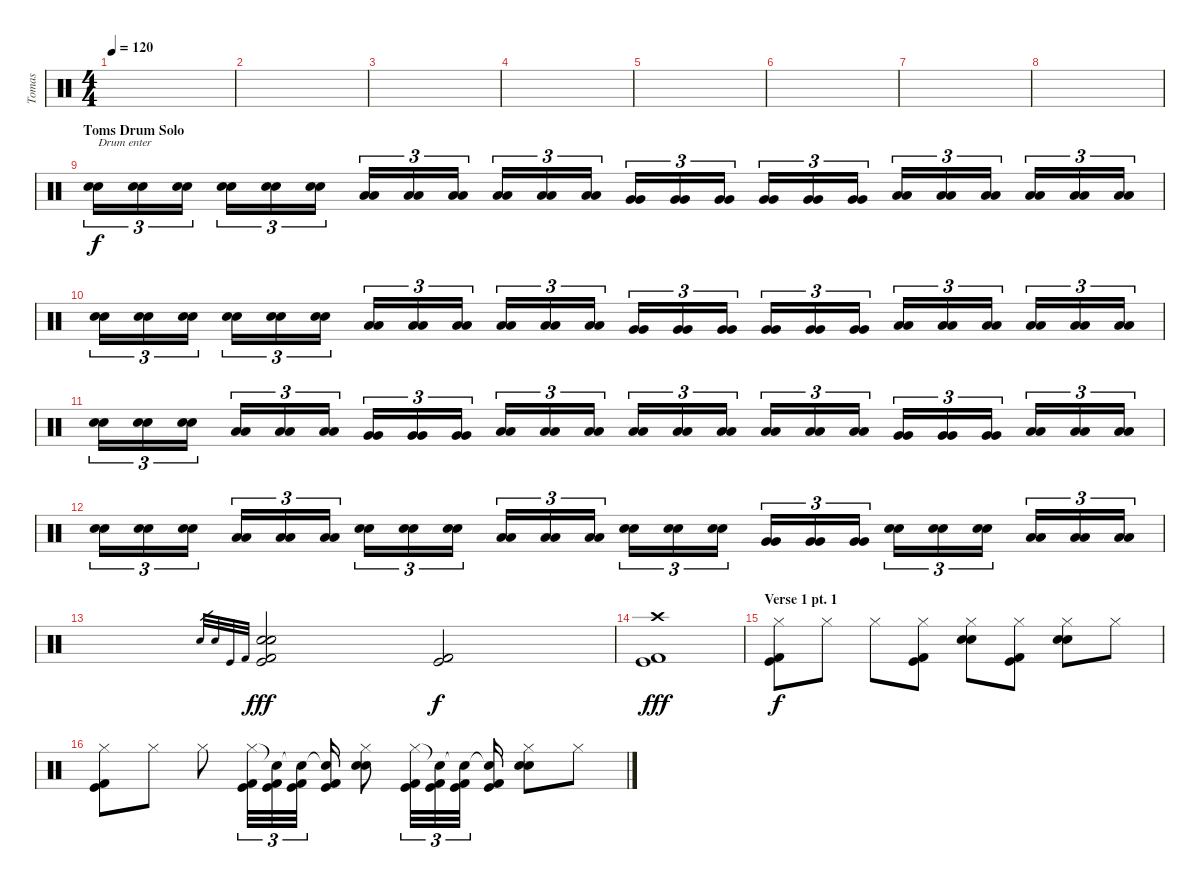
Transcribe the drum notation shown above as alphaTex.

\track ("Tomas" "Tomas") {instrument percussion}
\staff {score}
\articulation defaults
\ts (4 4)
\tempo 120
\clef neutral
\ks c
|
|
|
|
|
|
|
|
\section ("" "Toms Drum Solo")
("Electric Snare (hit)" "Electric Snare (hit)").16{tu (3 2) txt "Drum enter"} ("Electric Snare (hit)" "Electric Snare (hit)").16{tu (3 2)} ("Electric Snare (hit)" "Electric Snare (hit)").16{tu (3 2)} ("Electric Snare (hit)" "Electric Snare (hit)").16{tu (3 2)} ("Electric Snare (hit)" "Electric Snare (hit)").16{tu (3 2)} ("Electric Snare (hit)" "Electric Snare (hit)").16{tu (3 2)} ("Low Tom (hit)" "Low Tom (hit)").16{tu (3 2)} ("Low Tom (hit)" "Low Tom (hit)").16{tu (3 2)} ("Low Tom (hit)" "Low Tom (hit)").16{tu (3 2)} ("Low Tom (hit)" "Low Tom (hit)").16{tu (3 2)} ("Low Tom (hit)" "Low Tom (hit)").16{tu (3 2)} ("Low Tom (hit)" "Low Tom (hit)").16{tu (3 2)} ("Very Low Tom (hit)" "Very Low Tom (hit)").16{tu (3 2)} ("Very Low Tom (hit)" "Very Low Tom (hit)").16{tu (3 2)} ("Very Low Tom (hit)" "Very Low Tom (hit)").16{tu (3 2)} ("Very Low Tom (hit)" "Very Low Tom (hit)").16{tu (3 2)} ("Very Low Tom (hit)" "Very Low Tom (hit)").16{tu (3 2)} ("Very Low Tom (hit)" "Very Low Tom (hit)").16{tu (3 2)} ("Low Tom (hit)" "Low Tom (hit)").16{tu (3 2)} ("Low Tom (hit)" "Low Tom (hit)").16{tu (3 2)} ("Low Tom (hit)" "Low Tom (hit)").16{tu (3 2)} ("Low Tom (hit)" "Low Tom (hit)").16{tu (3 2)} ("Low Tom (hit)" "Low Tom (hit)").16{tu (3 2)} ("Low Tom (hit)" "Low Tom (hit)").16{tu (3 2)} |
("Electric Snare (hit)" "Electric Snare (hit)").16{tu (3 2)} ("Electric Snare (hit)" "Electric Snare (hit)").16{tu (3 2)} ("Electric Snare (hit)" "Electric Snare (hit)").16{tu (3 2)} ("Electric Snare (hit)" "Electric Snare (hit)").16{tu (3 2)} ("Electric Snare (hit)" "Electric Snare (hit)").16{tu (3 2)} ("Electric Snare (hit)" "Electric Snare (hit)").16{tu (3 2)} ("Low Tom (hit)" "Low Tom (hit)").16{tu (3 2)} ("Low Tom (hit)" "Low Tom (hit)").16{tu (3 2)} ("Low Tom (hit)" "Low Tom (hit)").16{tu (3 2)} ("Low Tom (hit)" "Low Tom (hit)").16{tu (3 2)} ("Low Tom (hit)" "Low Tom (hit)").16{tu (3 2)} ("Low Tom (hit)" "Low Tom (hit)").16{tu (3 2)} ("Very Low Tom (hit)" "Very Low Tom (hit)").16{tu (3 2)} ("Very Low Tom (hit)" "Very Low Tom (hit)").16{tu (3 2)} ("Very Low Tom (hit)" "Very Low Tom (hit)").16{tu (3 2)} ("Very Low Tom (hit)" "Very Low Tom (hit)").16{tu (3 2)} ("Very Low Tom (hit)" "Very Low Tom (hit)").16{tu (3 2)} ("Very Low Tom (hit)" "Very Low Tom (hit)").16{tu (3 2)} ("Low Tom (hit)" "Low Tom (hit)").16{tu (3 2)} ("Low Tom (hit)" "Low Tom (hit)").16{tu (3 2)} ("Low Tom (hit)" "Low Tom (hit)").16{tu (3 2)} ("Low Tom (hit)" "Low Tom (hit)").16{tu (3 2)} ("Low Tom (hit)" "Low Tom (hit)").16{tu (3 2)} ("Low Tom (hit)" "Low Tom (hit)").16{tu (3 2)} |
("Electric Snare (hit)" "Electric Snare (hit)").16{tu (3 2)} ("Electric Snare (hit)" "Electric Snare (hit)").16{tu (3 2)} ("Electric Snare (hit)" "Electric Snare (hit)").16{tu (3 2)} ("Low Tom (hit)" "Low Tom (hit)").16{tu (3 2)} ("Low Tom (hit)" "Low Tom (hit)").16{tu (3 2)} ("Low Tom (hit)" "Low Tom (hit)").16{tu (3 2)} ("Very Low Tom (hit)" "Very Low Tom (hit)").16{tu (3 2)} ("Very Low Tom (hit)" "Very Low Tom (hit)").16{tu (3 2)} ("Very Low Tom (hit)" "Very Low Tom (hit)").16{tu (3 2)} ("Low Floor Tom (hit)" "Low Floor Tom (hit)").16{tu (3 2)} ("Low Floor Tom (hit)" "Low Floor Tom (hit)").16{tu (3 2)} ("Low Floor Tom (hit)" "Low Floor Tom (hit)").16{tu (3 2)} ("Low Tom (hit)" "Low Tom (hit)").16{tu (3 2)} ("Low Tom (hit)" "Low Tom (hit)").16{tu (3 2)} ("Low Tom (hit)" "Low Tom (hit)").16{tu (3 2)} ("Low Tom (hit)" "Low Tom (hit)").16{tu (3 2)} ("Low Tom (hit)" "Low Tom (hit)").16{tu (3 2)} ("Low Tom (hit)" "Low Tom (hit)").16{tu (3 2)} ("Very Low Tom (hit)" "Very Low Tom (hit)").16{tu (3 2)} ("Very Low Tom (hit)" "Very Low Tom (hit)").16{tu (3 2)} ("Very Low Tom (hit)" "Very Low Tom (hit)").16{tu (3 2)} ("Low Floor Tom (hit)" "Low Floor Tom (hit)").16{tu (3 2)} ("Low Floor Tom (hit)" "Low Floor Tom (hit)").16{tu (3 2)} ("Low Floor Tom (hit)" "Low Floor Tom (hit)").16{tu (3 2)} |
("Electric Snare (hit)" "Electric Snare (hit)").16{tu (3 2)} ("Electric Snare (hit)" "Electric Snare (hit)").16{tu (3 2)} ("Electric Snare (hit)" "Electric Snare (hit)").16{tu (3 2)} ("Low Tom (hit)" "Low Tom (hit)").16{tu (3 2)} ("Low Tom (hit)" "Low Tom (hit)").16{tu (3 2)} ("Low Tom (hit)" "Low Tom (hit)").16{tu (3 2)} ("Electric Snare (hit)" "Electric Snare (hit)").16{tu (3 2)} ("Electric Snare (hit)" "Electric Snare (hit)").16{tu (3 2)} ("Electric Snare (hit)" "Electric Snare (hit)").16{tu (3 2)} ("Low Tom (hit)" "Low Tom (hit)").16{tu (3 2)} ("Low Tom (hit)" "Low Tom (hit)").16{tu (3 2)} ("Low Tom (hit)" "Low Tom (hit)").16{tu (3 2)} ("Electric Snare (hit)" "Electric Snare (hit)").16{tu (3 2)} ("Electric Snare (hit)" "Electric Snare (hit)").16{tu (3 2)} ("Electric Snare (hit)" "Electric Snare (hit)").16{tu (3 2)} ("Very Low Tom (hit)" "Very Low Tom (hit)").16{tu (3 2)} ("Very Low Tom (hit)" "Very Low Tom (hit)").16{tu (3 2)} ("Very Low Tom (hit)" "Very Low Tom (hit)").16{tu (3 2)} ("Electric Snare (hit)" "Electric Snare (hit)").16{tu (3 2)} ("Electric Snare (hit)" "Electric Snare (hit)").16{tu (3 2)} ("Electric Snare (hit)" "Electric Snare (hit)").16{tu (3 2)} ("Low Floor Tom (hit)" "Low Floor Tom (hit)").16{tu (3 2)} ("Low Floor Tom (hit)" "Low Floor Tom (hit)").16{tu (3 2)} ("Low Floor Tom (hit)" "Low Floor Tom (hit)").16{tu (3 2)} |
"Electric Snare (hit)".32{gr} "Electric Snare (hit)".32{gr} "Kick (hit)".32{gr} "Kick (hit) 2".32{gr} ("Electric Snare (hit)" "Electric Snare (hit)" "Kick (hit)" "Kick (hit) 2").2{dy fff} ("Kick (hit)" "Kick (hit) 2").2{dy f} |
("Kick (hit)" "Kick (hit) 2" "Crash high (hit)").1{dy fff} |
\section ("" "Verse 1 pt. 1")
("Hi-Hat (closed)" "Kick (hit)" "Kick (hit) 2").8{dy f} "Hi-Hat (closed)".8 "Hi-Hat (closed)".8 ("Hi-Hat (closed)" "Kick (hit)" "Kick (hit) 2").8 ("Hi-Hat (closed)" "Electric Snare (hit)" "Electric Snare (hit)").8 ("Hi-Hat (closed)" "Kick (hit)" "Kick (hit) 2").8 ("Hi-Hat (closed)" "Electric Snare (hit)" "Electric Snare (hit)").8 "Hi-Hat (closed)".8 |
("Hi-Hat (closed)" "Kick (hit)" "Kick (hit) 2").8 "Hi-Hat (closed)".8 "Hi-Hat (closed)".8 ("Hi-Hat (closed)" "Kick (hit)" "Kick (hit) 2").32{tu (3 2)} ("Snare (hit)"{t} "Kick (hit)" "Kick (hit) 2").32{tu (3 2)} ("Snare (hit)"{t} "Kick (hit)" "Kick (hit) 2").32{tu (3 2)} ("Snare (hit)"{t} "Kick (hit)" "Kick (hit) 2").16 ("Hi-Hat (closed)" "Electric Snare (hit)" "Electric Snare (hit)").8 ("Hi-Hat (closed)" "Kick (hit)" "Kick (hit) 2").32{tu (3 2)} ("Snare (hit)"{t} "Kick (hit)" "Kick (hit) 2").32{tu (3 2)} ("Snare (hit)"{t} "Kick (hit)" "Kick (hit) 2").32{tu (3 2)} ("Snare (hit)"{t} "Kick (hit)" "Kick (hit) 2").16 ("Hi-Hat (closed)" "Electric Snare (hit)" "Electric Snare (hit)").8 "Hi-Hat (closed)".8
